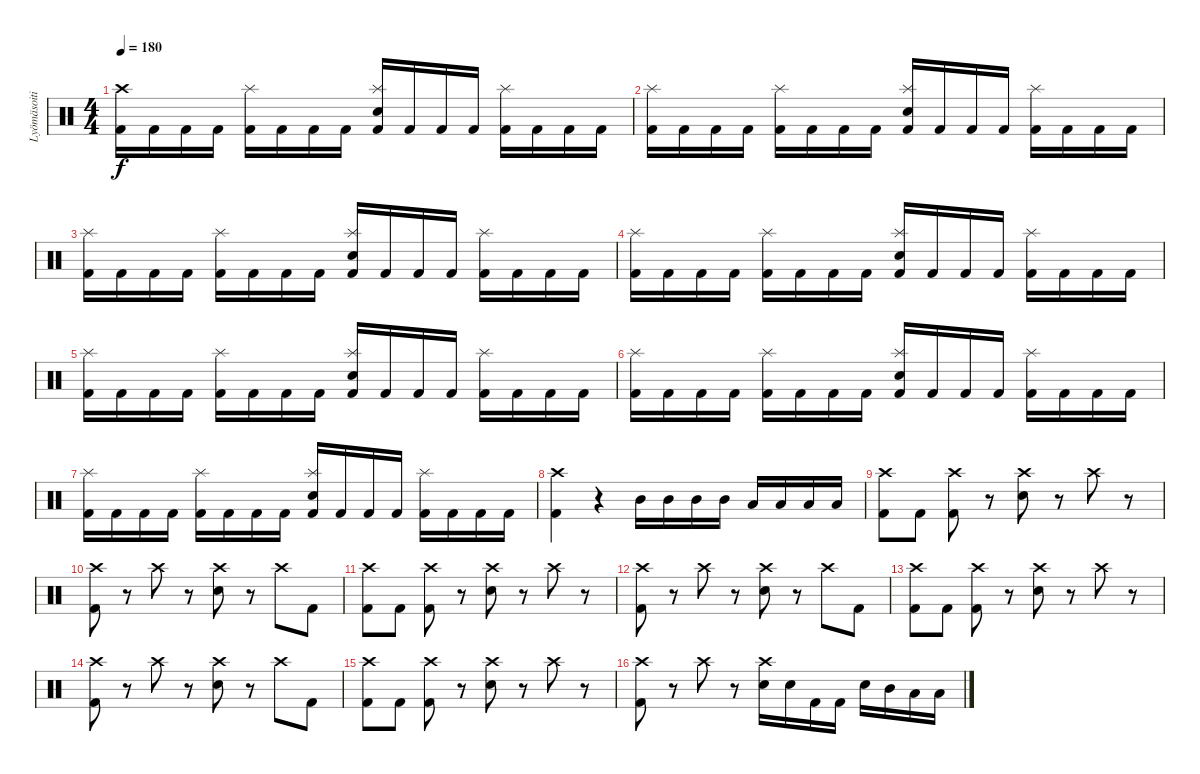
\track ("Lyömäsoitin" "Lyömäsoiti") {instrument percussion}
\staff {score}
\articulation defaults
\ts (4 4)
\tempo 180
\clef neutral
\ks c
("Kick (hit) 2" "Crash high (hit)").16{dy f} "Kick (hit) 2".16 "Kick (hit) 2".16 "Kick (hit) 2".16 ("Kick (hit) 2" "Splash (hit)").16 "Kick (hit) 2".16 "Kick (hit) 2".16 "Kick (hit) 2".16 ("Kick (hit) 2" "Electric Snare (hit)" "Splash (hit)").16 "Kick (hit) 2".16 "Kick (hit) 2".16 "Kick (hit) 2".16 ("Kick (hit) 2" "Splash (hit)").16 "Kick (hit) 2".16 "Kick (hit) 2".16 "Kick (hit) 2".16 |
("Kick (hit) 2" "Splash (hit)").16 "Kick (hit) 2".16 "Kick (hit) 2".16 "Kick (hit) 2".16 ("Kick (hit) 2" "Splash (hit)").16 "Kick (hit) 2".16 "Kick (hit) 2".16 "Kick (hit) 2".16 ("Kick (hit) 2" "Electric Snare (hit)" "Splash (hit)").16 "Kick (hit) 2".16 "Kick (hit) 2".16 "Kick (hit) 2".16 ("Kick (hit) 2" "Splash (hit)").16 "Kick (hit) 2".16 "Kick (hit) 2".16 "Kick (hit) 2".16 |
("Kick (hit) 2" "Splash (hit)").16 "Kick (hit) 2".16 "Kick (hit) 2".16 "Kick (hit) 2".16 ("Kick (hit) 2" "Splash (hit)").16 "Kick (hit) 2".16 "Kick (hit) 2".16 "Kick (hit) 2".16 ("Kick (hit) 2" "Electric Snare (hit)" "Splash (hit)").16 "Kick (hit) 2".16 "Kick (hit) 2".16 "Kick (hit) 2".16 ("Kick (hit) 2" "Splash (hit)").16 "Kick (hit) 2".16 "Kick (hit) 2".16 "Kick (hit) 2".16 |
("Kick (hit) 2" "Splash (hit)").16 "Kick (hit) 2".16 "Kick (hit) 2".16 "Kick (hit) 2".16 ("Kick (hit) 2" "Splash (hit)").16 "Kick (hit) 2".16 "Kick (hit) 2".16 "Kick (hit) 2".16 ("Kick (hit) 2" "Electric Snare (hit)" "Splash (hit)").16 "Kick (hit) 2".16 "Kick (hit) 2".16 "Kick (hit) 2".16 ("Kick (hit) 2" "Splash (hit)").16 "Kick (hit) 2".16 "Kick (hit) 2".16 "Kick (hit) 2".16 |
("Kick (hit) 2" "Splash (hit)").16 "Kick (hit) 2".16 "Kick (hit) 2".16 "Kick (hit) 2".16 ("Kick (hit) 2" "Splash (hit)").16 "Kick (hit) 2".16 "Kick (hit) 2".16 "Kick (hit) 2".16 ("Kick (hit) 2" "Electric Snare (hit)" "Splash (hit)").16 "Kick (hit) 2".16 "Kick (hit) 2".16 "Kick (hit) 2".16 ("Kick (hit) 2" "Splash (hit)").16 "Kick (hit) 2".16 "Kick (hit) 2".16 "Kick (hit) 2".16 |
("Kick (hit) 2" "Splash (hit)").16 "Kick (hit) 2".16 "Kick (hit) 2".16 "Kick (hit) 2".16 ("Kick (hit) 2" "Splash (hit)").16 "Kick (hit) 2".16 "Kick (hit) 2".16 "Kick (hit) 2".16 ("Kick (hit) 2" "Electric Snare (hit)" "Splash (hit)").16 "Kick (hit) 2".16 "Kick (hit) 2".16 "Kick (hit) 2".16 ("Kick (hit) 2" "Splash (hit)").16 "Kick (hit) 2".16 "Kick (hit) 2".16 "Kick (hit) 2".16 |
("Kick (hit) 2" "Splash (hit)").16 "Kick (hit) 2".16 "Kick (hit) 2".16 "Kick (hit) 2".16 ("Kick (hit) 2" "Splash (hit)").16 "Kick (hit) 2".16 "Kick (hit) 2".16 "Kick (hit) 2".16 ("Kick (hit) 2" "Electric Snare (hit)" "Splash (hit)").16 "Kick (hit) 2".16 "Kick (hit) 2".16 "Kick (hit) 2".16 ("Kick (hit) 2" "Splash (hit)").16 "Kick (hit) 2".16 "Kick (hit) 2".16 "Kick (hit) 2".16 |
("Kick (hit) 2" "Crash high (hit)").4 r.4 "Mid Tom (hit)".16 "Mid Tom (hit)".16 "Mid Tom (hit)".16 "Mid Tom (hit)".16 "Low Tom (hit)".16 "Low Tom (hit)".16 "Low Tom (hit)".16 "Low Tom (hit)".16 |
("Kick (hit) 2" "Crash high (hit)").8 "Kick (hit) 2".8 ("Kick (hit) 2" "Crash high (hit)").8 r.8 ("Electric Snare (hit)" "Crash high (hit)").8 r.8 "Crash high (hit)".8 r.8 |
("Kick (hit) 2" "Crash high (hit)").8 r.8 "Crash high (hit)".8 r.8 ("Electric Snare (hit)" "Crash high (hit)").8 r.8 "Crash high (hit)".8 "Kick (hit) 2".8 |
("Kick (hit) 2" "Crash high (hit)").8 "Kick (hit) 2".8 ("Kick (hit) 2" "Crash high (hit)").8 r.8 ("Electric Snare (hit)" "Crash high (hit)").8 r.8 "Crash high (hit)".8 r.8 |
("Kick (hit) 2" "Crash high (hit)").8 r.8 "Crash high (hit)".8 r.8 ("Electric Snare (hit)" "Crash high (hit)").8 r.8 "Crash high (hit)".8 "Kick (hit) 2".8 |
("Kick (hit) 2" "Crash high (hit)").8 "Kick (hit) 2".8 ("Kick (hit) 2" "Crash high (hit)").8 r.8 ("Electric Snare (hit)" "Crash high (hit)").8 r.8 "Crash high (hit)".8 r.8 |
("Kick (hit) 2" "Crash high (hit)").8 r.8 "Crash high (hit)".8 r.8 ("Electric Snare (hit)" "Crash high (hit)").8 r.8 "Crash high (hit)".8 "Kick (hit) 2".8 |
("Kick (hit) 2" "Crash high (hit)").8 "Kick (hit) 2".8 ("Kick (hit) 2" "Crash high (hit)").8 r.8 ("Electric Snare (hit)" "Crash high (hit)").8 r.8 "Crash high (hit)".8 r.8 |
("Kick (hit) 2" "Crash high (hit)").8 r.8 "Crash high (hit)".8 r.8 ("Electric Snare (hit)" "Crash high (hit)").16 "Electric Snare (hit)".16 "Kick (hit) 2".16 "Kick (hit) 2".16 "Electric Snare (hit)".16 "Mid Tom (hit)".16 "Low Tom (hit)".16 "Low Tom (hit)".16
